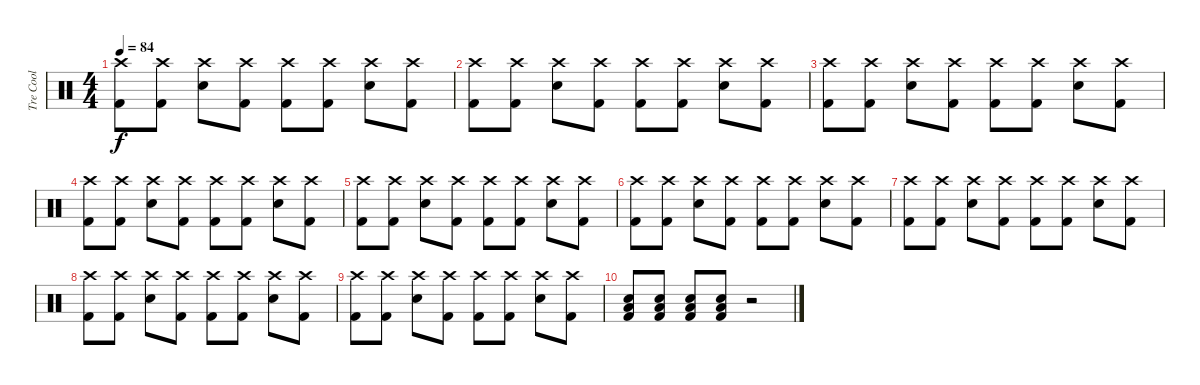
\track ("Tre Cool" "Tre Cool") {instrument percussion}
\staff {score}
\articulation defaults
\ts (4 4)
\tempo 84
\clef neutral
\ks c
("Crash high (hit)" "Kick (hit) 2").8{dy f} ("Crash high (hit)" "Kick (hit) 2").8 ("Crash high (hit)" "Snare (hit) 2").8 ("Crash high (hit)" "Kick (hit) 2").8 ("Crash high (hit)" "Kick (hit) 2").8 ("Crash high (hit)" "Kick (hit) 2").8 ("Crash high (hit)" "Snare (hit) 2").8 ("Crash high (hit)" "Kick (hit) 2").8 |
("Crash high (hit)" "Kick (hit) 2").8 ("Crash high (hit)" "Kick (hit) 2").8 ("Crash high (hit)" "Snare (hit) 2").8 ("Crash high (hit)" "Kick (hit) 2").8 ("Crash high (hit)" "Kick (hit) 2").8 ("Crash high (hit)" "Kick (hit) 2").8 ("Crash high (hit)" "Snare (hit) 2").8 ("Crash high (hit)" "Kick (hit) 2").8 |
("Crash high (hit)" "Kick (hit) 2").8 ("Crash high (hit)" "Kick (hit) 2").8 ("Crash high (hit)" "Snare (hit) 2").8 ("Crash high (hit)" "Kick (hit) 2").8 ("Crash high (hit)" "Kick (hit) 2").8 ("Crash high (hit)" "Kick (hit) 2").8 ("Crash high (hit)" "Snare (hit) 2").8 ("Crash high (hit)" "Kick (hit) 2").8 |
("Crash high (hit)" "Kick (hit) 2").8 ("Crash high (hit)" "Kick (hit) 2").8 ("Crash high (hit)" "Snare (hit) 2").8 ("Crash high (hit)" "Kick (hit) 2").8 ("Crash high (hit)" "Kick (hit) 2").8 ("Crash high (hit)" "Kick (hit) 2").8 ("Crash high (hit)" "Snare (hit) 2").8 ("Crash high (hit)" "Kick (hit) 2").8 |
("Crash high (hit)" "Kick (hit) 2").8 ("Crash high (hit)" "Kick (hit) 2").8 ("Crash high (hit)" "Snare (hit) 2").8 ("Crash high (hit)" "Kick (hit) 2").8 ("Crash high (hit)" "Kick (hit) 2").8 ("Crash high (hit)" "Kick (hit) 2").8 ("Crash high (hit)" "Snare (hit) 2").8 ("Crash high (hit)" "Kick (hit) 2").8 |
("Crash high (hit)" "Kick (hit) 2").8 ("Crash high (hit)" "Kick (hit) 2").8 ("Crash high (hit)" "Snare (hit) 2").8 ("Crash high (hit)" "Kick (hit) 2").8 ("Crash high (hit)" "Kick (hit) 2").8 ("Crash high (hit)" "Kick (hit) 2").8 ("Crash high (hit)" "Snare (hit) 2").8 ("Crash high (hit)" "Kick (hit) 2").8 |
("Crash high (hit)" "Kick (hit) 2").8 ("Crash high (hit)" "Kick (hit) 2").8 ("Crash high (hit)" "Snare (hit) 2").8 ("Crash high (hit)" "Kick (hit) 2").8 ("Crash high (hit)" "Kick (hit) 2").8 ("Crash high (hit)" "Kick (hit) 2").8 ("Crash high (hit)" "Snare (hit) 2").8 ("Crash high (hit)" "Kick (hit) 2").8 |
("Crash high (hit)" "Kick (hit) 2").8 ("Crash high (hit)" "Kick (hit) 2").8 ("Crash high (hit)" "Snare (hit) 2").8 ("Crash high (hit)" "Kick (hit) 2").8 ("Crash high (hit)" "Kick (hit) 2").8 ("Crash high (hit)" "Kick (hit) 2").8 ("Crash high (hit)" "Snare (hit) 2").8 ("Crash high (hit)" "Kick (hit) 2").8 |
("Crash high (hit)" "Kick (hit) 2").8 ("Crash high (hit)" "Kick (hit) 2").8 ("Crash high (hit)" "Snare (hit) 2").8 ("Crash high (hit)" "Kick (hit) 2").8 ("Crash high (hit)" "Kick (hit) 2").8 ("Crash high (hit)" "Kick (hit) 2").8 ("Crash high (hit)" "Snare (hit) 2").8 ("Crash high (hit)" "Kick (hit) 2").8 |
("Low Tom (hit)" "Snare (hit) 2" "Kick (hit) 2").8 ("Low Tom (hit)" "Snare (hit) 2" "Kick (hit) 2").8 ("Low Tom (hit)" "Snare (hit) 2" "Kick (hit) 2").8 ("Low Tom (hit)" "Snare (hit) 2" "Kick (hit) 2").8 r.2
